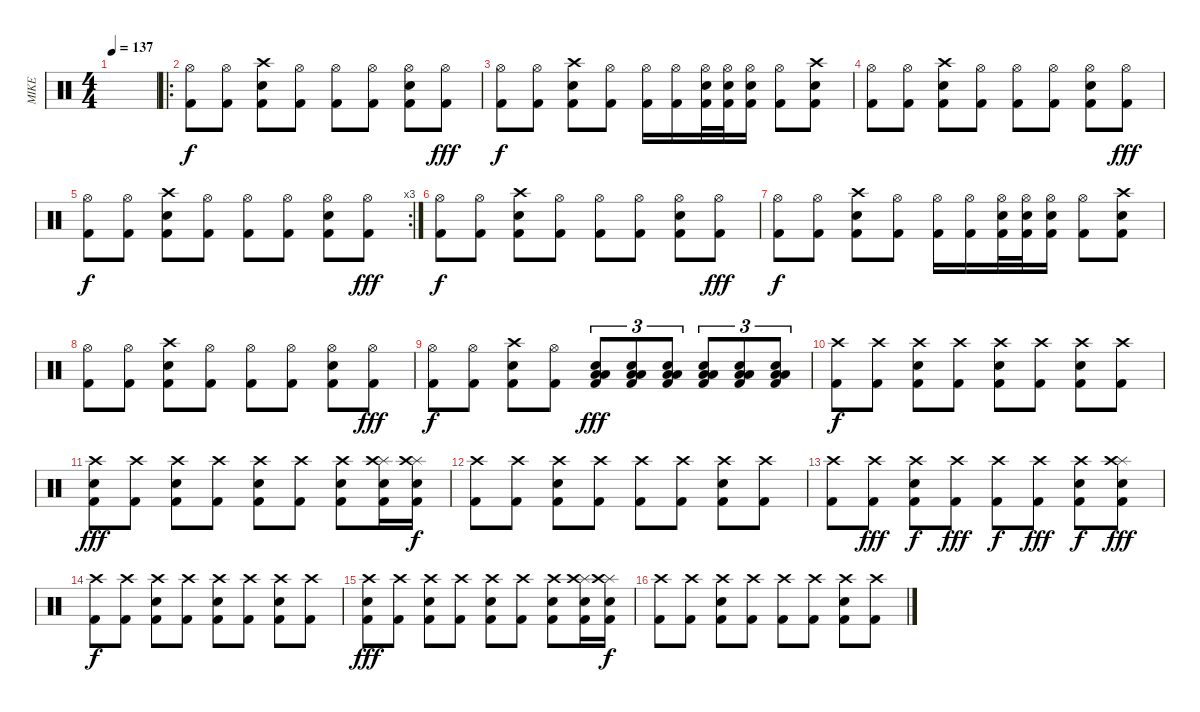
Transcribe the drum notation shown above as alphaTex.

\track ("MIKE" "MIKE") {instrument percussion}
\staff {score}
\articulation defaults
\ts (4 4)
\tempo 137
\clef neutral
\ks c
|
\ro
("Hi-Hat (open)" "Kick (hit) 2").8{dy f} ("Hi-Hat (open)" "Kick (hit) 2").8 ("Crash high (hit)" "Electric Snare (hit)" "Kick (hit) 2").8 ("Hi-Hat (open)" "Kick (hit) 2").8 ("Hi-Hat (open)" "Kick (hit) 2").8 ("Hi-Hat (open)" "Kick (hit) 2").8 ("Hi-Hat (open)" "Electric Snare (hit)" "Kick (hit) 2").8 ("Hi-Hat (open)" "Kick (hit) 2").8{dy fff} |
("Hi-Hat (open)" "Kick (hit) 2").8{dy f} ("Hi-Hat (open)" "Kick (hit) 2").8 ("Crash high (hit)" "Electric Snare (hit)" "Kick (hit) 2").8 ("Hi-Hat (open)" "Kick (hit) 2").8 ("Hi-Hat (open)" "Kick (hit) 2").16 ("Hi-Hat (open)" "Kick (hit) 2").16 ("Hi-Hat (open)" "Electric Snare (hit)" "Kick (hit) 2").32 ("Hi-Hat (open)" "Electric Snare (hit)" "Kick (hit) 2").32 ("Hi-Hat (open)" "Electric Snare (hit)" "Kick (hit) 2").16 ("Hi-Hat (open)" "Kick (hit) 2").8 ("Crash high (hit)" "Electric Snare (hit)" "Kick (hit) 2").8 |
("Hi-Hat (open)" "Kick (hit) 2").8 ("Hi-Hat (open)" "Kick (hit) 2").8 ("Crash high (hit)" "Electric Snare (hit)" "Kick (hit) 2").8 ("Hi-Hat (open)" "Kick (hit) 2").8 ("Hi-Hat (open)" "Kick (hit) 2").8 ("Hi-Hat (open)" "Kick (hit) 2").8 ("Hi-Hat (open)" "Electric Snare (hit)" "Kick (hit) 2").8 ("Hi-Hat (open)" "Kick (hit) 2").8{dy fff} |
\rc 3
("Hi-Hat (open)" "Kick (hit) 2").8{dy f} ("Hi-Hat (open)" "Kick (hit) 2").8 ("Crash high (hit)" "Electric Snare (hit)" "Kick (hit) 2").8 ("Hi-Hat (open)" "Kick (hit) 2").8 ("Hi-Hat (open)" "Kick (hit) 2").8 ("Hi-Hat (open)" "Kick (hit) 2").8 ("Hi-Hat (open)" "Electric Snare (hit)" "Kick (hit) 2").8 ("Hi-Hat (open)" "Kick (hit) 2").8{dy fff} |
("Hi-Hat (open)" "Kick (hit) 2").8{dy f} ("Hi-Hat (open)" "Kick (hit) 2").8 ("Crash high (hit)" "Electric Snare (hit)" "Kick (hit) 2").8 ("Hi-Hat (open)" "Kick (hit) 2").8 ("Hi-Hat (open)" "Kick (hit) 2").8 ("Hi-Hat (open)" "Kick (hit) 2").8 ("Hi-Hat (open)" "Electric Snare (hit)" "Kick (hit) 2").8 ("Hi-Hat (open)" "Kick (hit) 2").8{dy fff} |
("Hi-Hat (open)" "Kick (hit) 2").8{dy f} ("Hi-Hat (open)" "Kick (hit) 2").8 ("Crash high (hit)" "Electric Snare (hit)" "Kick (hit) 2").8 ("Hi-Hat (open)" "Kick (hit) 2").8 ("Hi-Hat (open)" "Kick (hit) 2").16 ("Hi-Hat (open)" "Kick (hit) 2").16 ("Hi-Hat (open)" "Electric Snare (hit)" "Kick (hit) 2").32 ("Hi-Hat (open)" "Electric Snare (hit)" "Kick (hit) 2").32 ("Hi-Hat (open)" "Electric Snare (hit)" "Kick (hit) 2").16 ("Hi-Hat (open)" "Kick (hit) 2").8 ("Crash high (hit)" "Electric Snare (hit)" "Kick (hit) 2").8 |
("Hi-Hat (open)" "Kick (hit) 2").8 ("Hi-Hat (open)" "Kick (hit) 2").8 ("Crash high (hit)" "Electric Snare (hit)" "Kick (hit) 2").8 ("Hi-Hat (open)" "Kick (hit) 2").8 ("Hi-Hat (open)" "Kick (hit) 2").8 ("Hi-Hat (open)" "Kick (hit) 2").8 ("Hi-Hat (open)" "Electric Snare (hit)" "Kick (hit) 2").8 ("Hi-Hat (open)" "Kick (hit) 2").8{dy fff} |
("Hi-Hat (open)" "Kick (hit) 2").8{dy f} ("Hi-Hat (open)" "Kick (hit) 2").8 ("Crash high (hit)" "Electric Snare (hit)" "Kick (hit) 2").8 ("Hi-Hat (open)" "Kick (hit) 2").8 ("Kick (hit) 2" "Low Floor Tom (hit)" "Low Floor Tom (hit)" "Electric Snare (hit)").8{tu (3 2) dy fff} ("Kick (hit) 2" "Low Floor Tom (hit)" "Low Floor Tom (hit)" "Electric Snare (hit)").8{tu (3 2)} ("Kick (hit) 2" "Low Floor Tom (hit)" "Low Floor Tom (hit)" "Electric Snare (hit)").8{tu (3 2)} ("Kick (hit) 2" "Low Floor Tom (hit)" "Low Floor Tom (hit)" "Electric Snare (hit)").8{tu (3 2)} ("Kick (hit) 2" "Low Floor Tom (hit)" "Low Floor Tom (hit)" "Electric Snare (hit)").8{tu (3 2)} ("Kick (hit) 2" "Low Floor Tom (hit)" "Low Floor Tom (hit)" "Electric Snare (hit)").8{tu (3 2)} |
("Crash high (hit)" "Kick (hit) 2").8{dy f} ("Crash high (hit)" "Kick (hit) 2").8 ("Crash high (hit)" "Electric Snare (hit)" "Kick (hit) 2").8 ("Crash high (hit)" "Kick (hit) 2").8 ("Crash high (hit)" "Electric Snare (hit)" "Kick (hit) 2").8 ("Crash high (hit)" "Kick (hit) 2").8 ("Crash high (hit)" "Electric Snare (hit)" "Kick (hit) 2").8 ("Crash high (hit)" "Kick (hit) 2").8 |
("Crash high (hit)" "Electric Snare (hit)" "Kick (hit) 2").8{dy fff} ("Crash high (hit)" "Kick (hit) 2").8 ("Crash high (hit)" "Electric Snare (hit)" "Kick (hit) 2").8 ("Crash high (hit)" "Kick (hit) 2").8 ("Crash high (hit)" "Electric Snare (hit)" "Kick (hit) 2").8 ("Crash high (hit)" "Kick (hit) 2").8 ("Crash high (hit)" "Electric Snare (hit)" "Kick (hit) 2").8 ("Splash (hit)" "Crash high (hit)" "Electric Snare (hit)" "Kick (hit) 2").16 ("Splash (hit)" "Crash high (hit)" "Electric Snare (hit)" "Kick (hit) 2").16{dy f} |
("Crash high (hit)" "Kick (hit) 2").8 ("Crash high (hit)" "Kick (hit) 2").8 ("Crash high (hit)" "Electric Snare (hit)" "Kick (hit) 2").8 ("Crash high (hit)" "Kick (hit) 2").8 ("Crash high (hit)" "Kick (hit) 2").8 ("Crash high (hit)" "Kick (hit) 2").8 ("Crash high (hit)" "Electric Snare (hit)" "Kick (hit) 2").8 ("Crash high (hit)" "Kick (hit) 2").8 |
("Crash high (hit)" "Kick (hit) 2").8 ("Crash high (hit)" "Kick (hit) 2").8{dy fff} ("Crash high (hit)" "Electric Snare (hit)" "Kick (hit) 2").8{dy f} ("Crash high (hit)" "Kick (hit) 2").8{dy fff} ("Crash high (hit)" "Kick (hit) 2").8{dy f} ("Crash high (hit)" "Kick (hit) 2").8{dy fff} ("Crash high (hit)" "Electric Snare (hit)" "Kick (hit) 2").8{dy f} ("Splash (hit)" "Crash high (hit)" "Electric Snare (hit)" "Kick (hit) 2").8{dy fff} |
("Crash high (hit)" "Kick (hit) 2").8{dy f} ("Crash high (hit)" "Kick (hit) 2").8 ("Crash high (hit)" "Electric Snare (hit)" "Kick (hit) 2").8 ("Crash high (hit)" "Kick (hit) 2").8 ("Crash high (hit)" "Electric Snare (hit)" "Kick (hit) 2").8 ("Crash high (hit)" "Kick (hit) 2").8 ("Crash high (hit)" "Electric Snare (hit)" "Kick (hit) 2").8 ("Crash high (hit)" "Kick (hit) 2").8 |
("Crash high (hit)" "Electric Snare (hit)" "Kick (hit) 2").8{dy fff} ("Crash high (hit)" "Kick (hit) 2").8 ("Crash high (hit)" "Electric Snare (hit)" "Kick (hit) 2").8 ("Crash high (hit)" "Kick (hit) 2").8 ("Crash high (hit)" "Electric Snare (hit)" "Kick (hit) 2").8 ("Crash high (hit)" "Kick (hit) 2").8 ("Crash high (hit)" "Electric Snare (hit)" "Kick (hit) 2").8 ("Splash (hit)" "Crash high (hit)" "Electric Snare (hit)" "Kick (hit) 2").16 ("Splash (hit)" "Crash high (hit)" "Electric Snare (hit)" "Kick (hit) 2").16{dy f} |
("Crash high (hit)" "Kick (hit) 2").8 ("Crash high (hit)" "Kick (hit) 2").8 ("Crash high (hit)" "Electric Snare (hit)" "Kick (hit) 2").8 ("Crash high (hit)" "Kick (hit) 2").8 ("Crash high (hit)" "Kick (hit) 2").8 ("Crash high (hit)" "Kick (hit) 2").8 ("Crash high (hit)" "Electric Snare (hit)" "Kick (hit) 2").8 ("Crash high (hit)" "Kick (hit) 2").8
